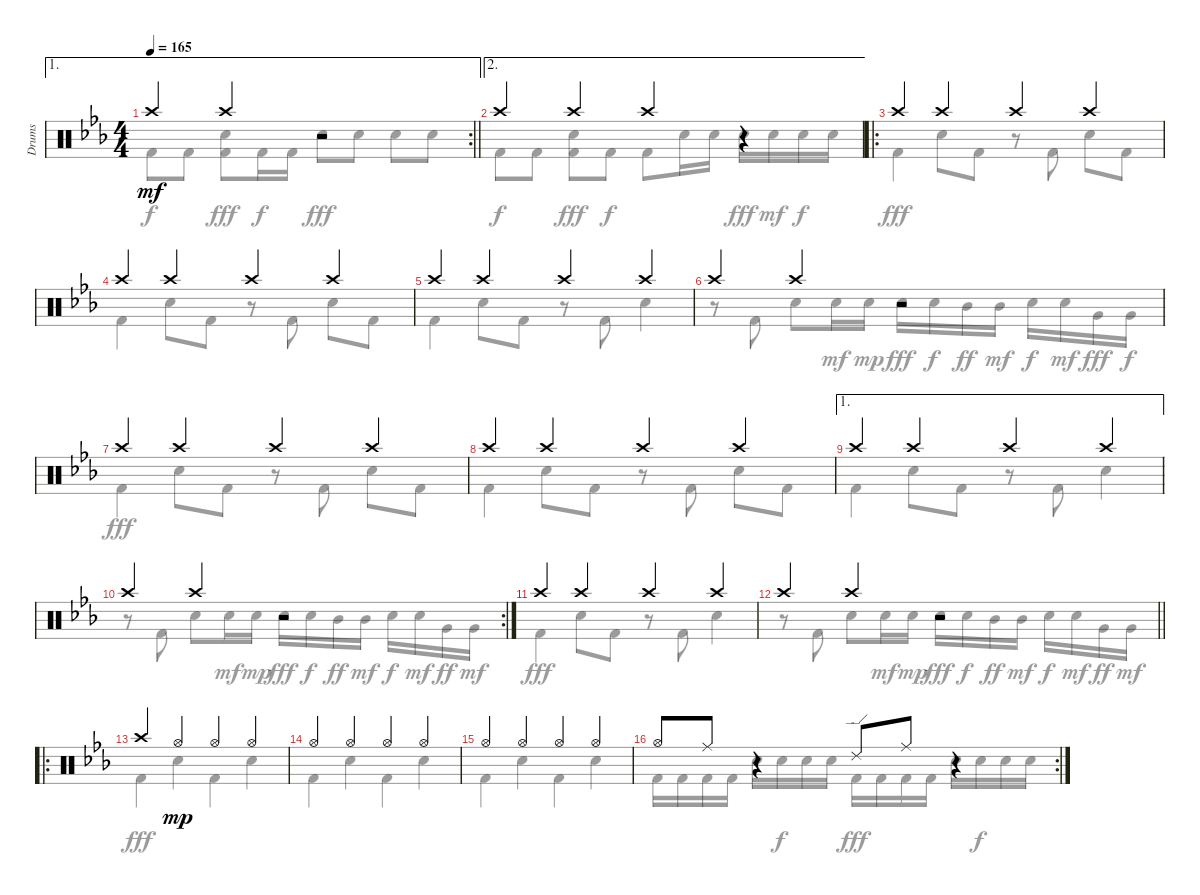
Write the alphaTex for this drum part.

\track ("Drums" "Drums") {instrument percussion}
\staff {score}
\articulation defaults
\voice
\ae 1
\rc 2
\ts (4 4)
\tempo 165
\clef neutral
\barLineRight lightlight
\ks cminor "Crash high (hit)".4{dy mf} "Crash high (hit)".4
r.2 |
\ae 2 "Crash high (hit)".4 "Crash high (hit)".4 "Crash high (hit)".4
r.4 |
\ro "Crash high (hit)".4 "Crash high (hit)".4 "Crash high (hit)".4 "Crash high (hit)".4
|
"Crash high (hit)".4 "Crash high (hit)".4 "Crash high (hit)".4 "Crash high (hit)".4 |
"Crash high (hit)".4 "Crash high (hit)".4 "Crash high (hit)".4 "Crash high (hit)".4 |
"Crash high (hit)".4 "Crash high (hit)".4 r.2 |
"Crash high (hit)".4 "Crash high (hit)".4 "Crash high (hit)".4 "Crash high (hit)".4 |
"Crash high (hit)".4 "Crash high (hit)".4 "Crash high (hit)".4 "Crash high (hit)".4 |
\ae 1 "Crash high (hit)".4 "Crash high (hit)".4 "Crash high (hit)".4 "Crash high (hit)".4
|
\rc 2 "Crash high (hit)".4 "Crash high (hit)".4
r.2 |
"Crash high (hit)".4 "Crash high (hit)".4 "Crash high (hit)".4 "Crash high (hit)".4 |
\barLineRight lightlight "Crash high (hit)".4 "Crash high (hit)".4
r.2 |
\ro "Crash high (hit)".4 "Hi-Hat (open)".4{dy mp} "Hi-Hat (open)".4 "Hi-Hat (open)".4
|
"Hi-Hat (open)".4 "Hi-Hat (open)".4 "Hi-Hat (open)".4 "Hi-Hat (open)".4 |
"Hi-Hat (open)".4 "Hi-Hat (open)".4 "Hi-Hat (open)".4 "Hi-Hat (open)".4 |
\rc 2 "Hi-Hat (open)".8 "Ride (middle)".8
r.4 "Ride (edge) 2".8 "Ride (middle)".8 r.4
\voice
\clef neutral
\ottava regular
\simile none
\barLineRight lightlight
\ks cminor "Kick (hit) 2".8{dy f} "Kick (hit) 2".8
("Electric Snare (hit)" "Kick (hit) 2").8{dy fff} "Kick (hit) 2".16{dy f} "Kick (hit) 2".16 "Electric Snare (hit)".8{dy fff} "Electric Snare (hit)".8 "Electric Snare (hit)".8 "Electric Snare (hit)".8 |
"Kick (hit) 2".8{dy f} "Kick (hit) 2".8 ("Electric Snare (hit)" "Kick (hit) 2").8{dy fff} "Kick (hit) 2".8{dy f} "Kick (hit) 2".8 "Electric Snare (hit)".16 "Electric Snare (hit)".16 "Electric Snare (hit)".16{dy fff} "Electric Snare (hit)".16{dy mf} "Electric Snare (hit)".16{dy f} "Electric Snare (hit)".16 |
"Kick (hit) 2".4{dy fff} "Electric Snare (hit)".8 "Kick (hit) 2".8 r.8 "Kick (hit) 2".8 "Electric Snare (hit)".8 "Kick (hit) 2".8 |
"Kick (hit) 2".4 "Electric Snare (hit)".8 "Kick (hit) 2".8 r.8 "Kick (hit) 2".8 "Electric Snare (hit)".8 "Kick (hit) 2".8 |
"Kick (hit) 2".4 "Electric Snare (hit)".8 "Kick (hit) 2".8 r.8 "Kick (hit) 2".8 "Electric Snare (hit)".4 |
r.8 "Kick (hit) 2".8 "Electric Snare (hit)".8 "Electric Snare (hit)".16{dy mf} "Electric Snare (hit)".16{dy mp} "Electric Snare (hit)".16{dy fff} "Electric Snare (hit)".16{dy f} "Mid Tom (hit)".16{dy ff} "Mid Tom (hit)".16{dy mf} "Electric Snare (hit)".16{dy f} "Electric Snare (hit)".16{dy mf} "Very Low Tom (hit)".16{dy fff} "Very Low Tom (hit)".16{dy f} |
"Kick (hit) 2".4{dy fff} "Electric Snare (hit)".8 "Kick (hit) 2".8 r.8 "Kick (hit) 2".8 "Electric Snare (hit)".8 "Kick (hit) 2".8 |
"Kick (hit) 2".4 "Electric Snare (hit)".8 "Kick (hit) 2".8 r.8 "Kick (hit) 2".8 "Electric Snare (hit)".8 "Kick (hit) 2".8 |
"Kick (hit) 2".4 "Electric Snare (hit)".8 "Kick (hit) 2".8 r.8 "Kick (hit) 2".8 "Electric Snare (hit)".4 |
r.8 "Kick (hit) 2".8 "Electric Snare (hit)".8 "Electric Snare (hit)".16{dy mf} "Electric Snare (hit)".16{dy mp} "Electric Snare (hit)".16{dy fff} "Electric Snare (hit)".16{dy f} "Mid Tom (hit)".16{dy ff} "Mid Tom (hit)".16{dy mf} "Electric Snare (hit)".16{dy f} "Electric Snare (hit)".16{dy mf} "Very Low Tom (hit)".16{dy ff} "Very Low Tom (hit)".16{dy mf} |
"Kick (hit) 2".4{dy fff} "Electric Snare (hit)".8 "Kick (hit) 2".8 r.8 "Kick (hit) 2".8 "Electric Snare (hit)".4 |
\barLineRight lightlight
r.8 "Kick (hit) 2".8 "Electric Snare (hit)".8 "Electric Snare (hit)".16{dy mf} "Electric Snare (hit)".16{dy mp} "Electric Snare (hit)".16{dy fff} "Electric Snare (hit)".16{dy f} "Mid Tom (hit)".16{dy ff} "Mid Tom (hit)".16{dy mf} "Electric Snare (hit)".16{dy f} "Electric Snare (hit)".16{dy mf} "Very Low Tom (hit)".16{dy ff} "Very Low Tom (hit)".16{dy mf} |
"Kick (hit) 2".4{dy fff} "Electric Snare (hit)".4 "Kick (hit) 2".4 "Electric Snare (hit)".4 |
"Kick (hit) 2".4 "Electric Snare (hit)".4 "Kick (hit) 2".4 "Electric Snare (hit)".4 |
"Kick (hit) 2".4 "Electric Snare (hit)".4 "Kick (hit) 2".4 "Electric Snare (hit)".4 |
"Kick (hit) 2".16 "Kick (hit) 2".16 "Kick (hit) 2".16 "Kick (hit) 2".16 "Electric Snare (hit)".16 "Electric Snare (hit)".16{dy f} "Electric Snare (hit)".16 "Electric Snare (hit)".16 "Kick (hit) 2".16{dy fff} "Kick (hit) 2".16 "Kick (hit) 2".16 "Kick (hit) 2".16 "Electric Snare (hit)".16 "Electric Snare (hit)".16{dy f} "Electric Snare (hit)".16 "Electric Snare (hit)".16
